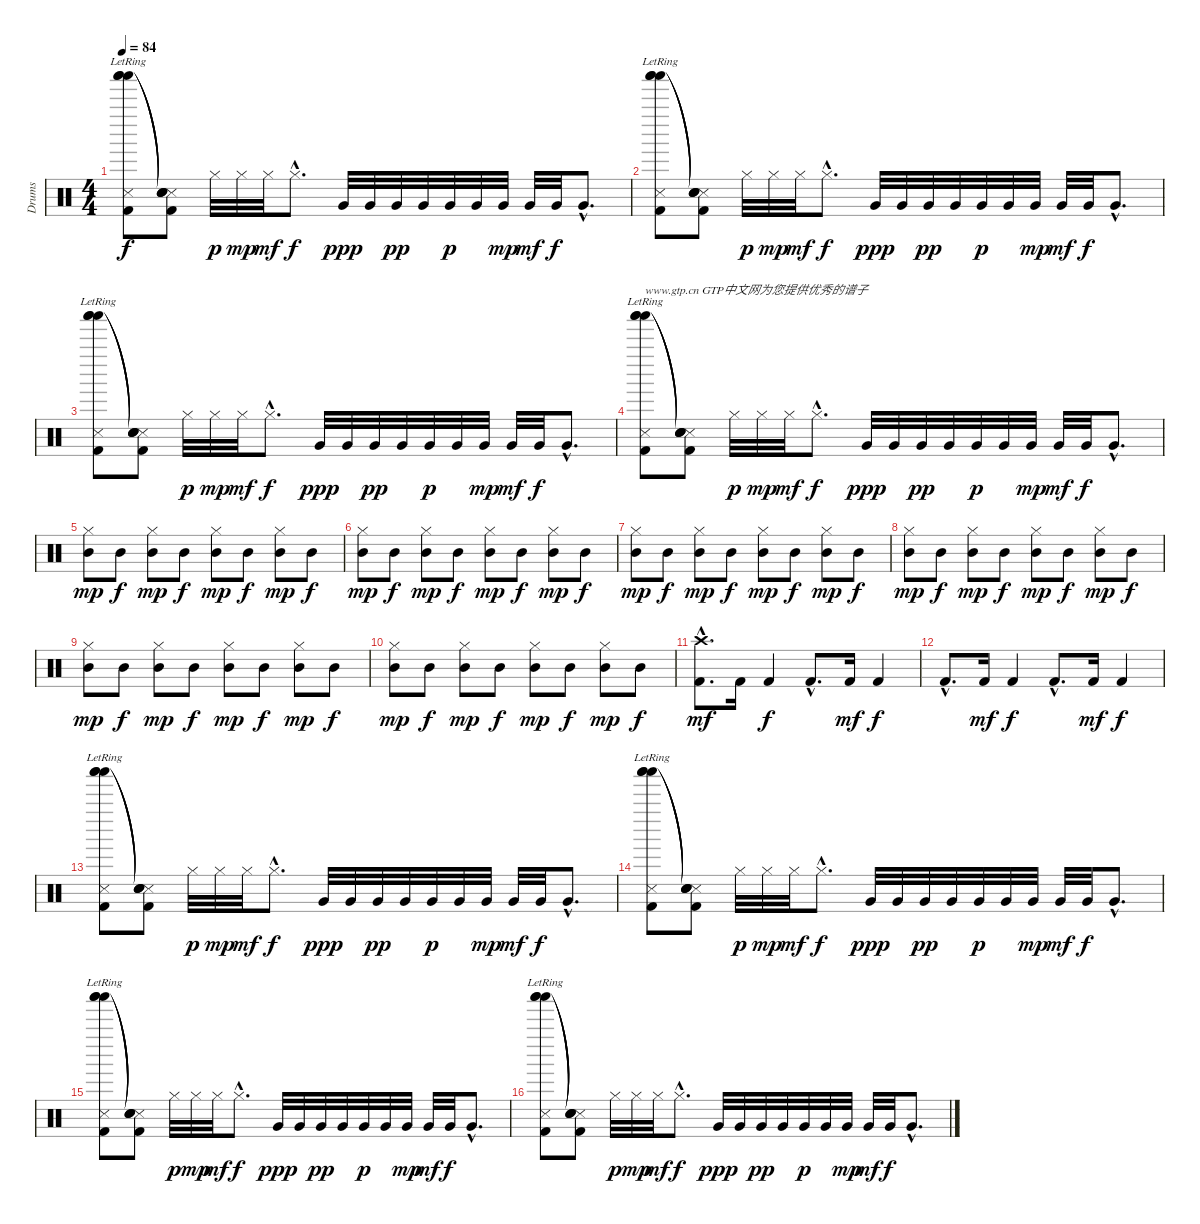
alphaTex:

\track ("Drums" "Drums") {instrument percussion}
\staff {score}
\articulation defaults
\ts (4 4)
\tempo 84
\clef neutral
\ks c
("Snare (side stick) 3" "Kick (hit) 2" "Shaker (hit)"{lr} "Shaker (hit)"{lr} "Shaker (hit)"{lr}).8{dy f} ("Snare (side stick) 3" "Kick (hit) 2" "Snare (hit)"{t} "Snare (hit)"{t} "Snare (hit)"{t}).8 "Hi-Hat (closed)".32{dy p} "Hi-Hat (closed)".32{dy mp} "Hi-Hat (closed)".32{dy mf} "Hi-Hat (closed)"{hac}.8{d dy f} "Very Low Tom (hit)".32{dy ppp} "Very Low Tom (hit)".32 "Very Low Tom (hit)".32{dy pp} "Very Low Tom (hit)".32 "Very Low Tom (hit)".32{dy p} "Very Low Tom (hit)".32 "Very Low Tom (hit)".32{dy mp} "Very Low Tom (hit)".32{dy mf} "Very Low Tom (hit)".32{dy f} "Very Low Tom (hit)"{hac}.8{d} |
("Snare (side stick) 3" "Kick (hit) 2" "Shaker (hit)"{lr} "Shaker (hit)"{lr} "Shaker (hit)"{lr}).8 ("Snare (side stick) 3" "Kick (hit) 2" "Snare (hit)"{t} "Snare (hit)"{t} "Snare (hit)"{t}).8 "Hi-Hat (closed)".32{dy p} "Hi-Hat (closed)".32{dy mp} "Hi-Hat (closed)".32{dy mf} "Hi-Hat (closed)"{hac}.8{d dy f} "Very Low Tom (hit)".32{dy ppp} "Very Low Tom (hit)".32 "Very Low Tom (hit)".32{dy pp} "Very Low Tom (hit)".32 "Very Low Tom (hit)".32{dy p} "Very Low Tom (hit)".32 "Very Low Tom (hit)".32{dy mp} "Very Low Tom (hit)".32{dy mf} "Very Low Tom (hit)".32{dy f} "Very Low Tom (hit)"{hac}.8{d} |
("Snare (side stick) 3" "Kick (hit) 2" "Shaker (hit)"{lr} "Shaker (hit)"{lr} "Shaker (hit)"{lr}).8 ("Snare (side stick) 3" "Kick (hit) 2" "Snare (hit)"{t} "Snare (hit)"{t} "Snare (hit)"{t}).8 "Hi-Hat (closed)".32{dy p} "Hi-Hat (closed)".32{dy mp} "Hi-Hat (closed)".32{dy mf} "Hi-Hat (closed)"{hac}.8{d dy f} "Very Low Tom (hit)".32{dy ppp} "Very Low Tom (hit)".32 "Very Low Tom (hit)".32{dy pp} "Very Low Tom (hit)".32 "Very Low Tom (hit)".32{dy p} "Very Low Tom (hit)".32 "Very Low Tom (hit)".32{dy mp} "Very Low Tom (hit)".32{dy mf} "Very Low Tom (hit)".32{dy f} "Very Low Tom (hit)"{hac}.8{d} |
("Snare (side stick) 3" "Kick (hit) 2" "Shaker (hit)"{lr} "Shaker (hit)"{lr} "Shaker (hit)"{lr}).8{txt "www.gtp.cn GTP中文网为您提供优秀的谱子"} ("Snare (side stick) 3" "Kick (hit) 2" "Snare (hit)"{t} "Snare (hit)"{t} "Snare (hit)"{t}).8 "Hi-Hat (closed)".32{dy p} "Hi-Hat (closed)".32{dy mp} "Hi-Hat (closed)".32{dy mf} "Hi-Hat (closed)"{hac}.8{d dy f} "Very Low Tom (hit)".32{dy ppp} "Very Low Tom (hit)".32 "Very Low Tom (hit)".32{dy pp} "Very Low Tom (hit)".32 "Very Low Tom (hit)".32{dy p} "Very Low Tom (hit)".32 "Very Low Tom (hit)".32{dy mp} "Very Low Tom (hit)".32{dy mf} "Very Low Tom (hit)".32{dy f} "Very Low Tom (hit)"{hac}.8{d} |
("Mid Tom (hit)" "Hi-Hat (closed)").8{dy mp} "Mid Tom (hit)".8{dy f} ("Mid Tom (hit)" "Hi-Hat (closed)").8{dy mp} "Mid Tom (hit)".8{dy f} ("Mid Tom (hit)" "Hi-Hat (closed)").8{dy mp} "Mid Tom (hit)".8{dy f} ("Mid Tom (hit)" "Hi-Hat (closed)").8{dy mp} "Mid Tom (hit)".8{dy f} |
("Mid Tom (hit)" "Hi-Hat (closed)").8{dy mp} "Mid Tom (hit)".8{dy f} ("Mid Tom (hit)" "Hi-Hat (closed)").8{dy mp} "Mid Tom (hit)".8{dy f} ("Mid Tom (hit)" "Hi-Hat (closed)").8{dy mp} "Mid Tom (hit)".8{dy f} ("Mid Tom (hit)" "Hi-Hat (closed)").8{dy mp} "Mid Tom (hit)".8{dy f} |
("Mid Tom (hit)" "Hi-Hat (closed)").8{dy mp} "Mid Tom (hit)".8{dy f} ("Mid Tom (hit)" "Hi-Hat (closed)").8{dy mp} "Mid Tom (hit)".8{dy f} ("Mid Tom (hit)" "Hi-Hat (closed)").8{dy mp} "Mid Tom (hit)".8{dy f} ("Mid Tom (hit)" "Hi-Hat (closed)").8{dy mp} "Mid Tom (hit)".8{dy f} |
("Mid Tom (hit)" "Hi-Hat (closed)").8{dy mp} "Mid Tom (hit)".8{dy f} ("Mid Tom (hit)" "Hi-Hat (closed)").8{dy mp} "Mid Tom (hit)".8{dy f} ("Mid Tom (hit)" "Hi-Hat (closed)").8{dy mp} "Mid Tom (hit)".8{dy f} ("Mid Tom (hit)" "Hi-Hat (closed)").8{dy mp} "Mid Tom (hit)".8{dy f} |
("Mid Tom (hit)" "Hi-Hat (closed)").8{dy mp} "Mid Tom (hit)".8{dy f} ("Mid Tom (hit)" "Hi-Hat (closed)").8{dy mp} "Mid Tom (hit)".8{dy f} ("Mid Tom (hit)" "Hi-Hat (closed)").8{dy mp} "Mid Tom (hit)".8{dy f} ("Mid Tom (hit)" "Hi-Hat (closed)").8{dy mp} "Mid Tom (hit)".8{dy f} |
("Mid Tom (hit)" "Hi-Hat (closed)").8{dy mp} "Mid Tom (hit)".8{dy f} ("Mid Tom (hit)" "Hi-Hat (closed)").8{dy mp} "Mid Tom (hit)".8{dy f} ("Mid Tom (hit)" "Hi-Hat (closed)").8{dy mp} "Mid Tom (hit)".8{dy f} ("Mid Tom (hit)" "Hi-Hat (closed)").8{dy mp} "Mid Tom (hit)".8{dy f} |
("Kick (hit) 2"{hac} "Crash high (hit)"{hac}).8{d dy mf} "Kick (hit) 2".16 "Kick (hit) 2".4{dy f} "Kick (hit) 2"{hac}.8{d} "Kick (hit) 2".16{dy mf} "Kick (hit) 2".4{dy f} |
"Kick (hit) 2"{hac}.8{d} "Kick (hit) 2".16{dy mf} "Kick (hit) 2".4{dy f} "Kick (hit) 2"{hac}.8{d} "Kick (hit) 2".16{dy mf} "Kick (hit) 2".4{dy f} |
("Snare (side stick) 3" "Kick (hit) 2" "Shaker (hit)"{lr} "Shaker (hit)"{lr} "Shaker (hit)"{lr}).8 ("Snare (side stick) 3" "Kick (hit) 2" "Snare (hit)"{t} "Snare (hit)"{t} "Snare (hit)"{t}).8 "Hi-Hat (closed)".32{dy p} "Hi-Hat (closed)".32{dy mp} "Hi-Hat (closed)".32{dy mf} "Hi-Hat (closed)"{hac}.8{d dy f} "Very Low Tom (hit)".32{dy ppp} "Very Low Tom (hit)".32 "Very Low Tom (hit)".32{dy pp} "Very Low Tom (hit)".32 "Very Low Tom (hit)".32{dy p} "Very Low Tom (hit)".32 "Very Low Tom (hit)".32{dy mp} "Very Low Tom (hit)".32{dy mf} "Very Low Tom (hit)".32{dy f} "Very Low Tom (hit)"{hac}.8{d} |
("Snare (side stick) 3" "Kick (hit) 2" "Shaker (hit)"{lr} "Shaker (hit)"{lr} "Shaker (hit)"{lr}).8 ("Snare (side stick) 3" "Kick (hit) 2" "Snare (hit)"{t} "Snare (hit)"{t} "Snare (hit)"{t}).8 "Hi-Hat (closed)".32{dy p} "Hi-Hat (closed)".32{dy mp} "Hi-Hat (closed)".32{dy mf} "Hi-Hat (closed)"{hac}.8{d dy f} "Very Low Tom (hit)".32{dy ppp} "Very Low Tom (hit)".32 "Very Low Tom (hit)".32{dy pp} "Very Low Tom (hit)".32 "Very Low Tom (hit)".32{dy p} "Very Low Tom (hit)".32 "Very Low Tom (hit)".32{dy mp} "Very Low Tom (hit)".32{dy mf} "Very Low Tom (hit)".32{dy f} "Very Low Tom (hit)"{hac}.8{d} |
("Snare (side stick) 3" "Kick (hit) 2" "Shaker (hit)"{lr} "Shaker (hit)"{lr} "Shaker (hit)"{lr}).8 ("Snare (side stick) 3" "Kick (hit) 2" "Snare (hit)"{t} "Snare (hit)"{t} "Snare (hit)"{t}).8 "Hi-Hat (closed)".32{dy p} "Hi-Hat (closed)".32{dy mp} "Hi-Hat (closed)".32{dy mf} "Hi-Hat (closed)"{hac}.8{d dy f} "Very Low Tom (hit)".32{dy ppp} "Very Low Tom (hit)".32 "Very Low Tom (hit)".32{dy pp} "Very Low Tom (hit)".32 "Very Low Tom (hit)".32{dy p} "Very Low Tom (hit)".32 "Very Low Tom (hit)".32{dy mp} "Very Low Tom (hit)".32{dy mf} "Very Low Tom (hit)".32{dy f} "Very Low Tom (hit)"{hac}.8{d} |
("Snare (side stick) 3" "Kick (hit) 2" "Shaker (hit)"{lr} "Shaker (hit)"{lr} "Shaker (hit)"{lr}).8 ("Snare (side stick) 3" "Kick (hit) 2" "Snare (hit)"{t} "Snare (hit)"{t} "Snare (hit)"{t}).8 "Hi-Hat (closed)".32{dy p} "Hi-Hat (closed)".32{dy mp} "Hi-Hat (closed)".32{dy mf} "Hi-Hat (closed)"{hac}.8{d dy f} "Very Low Tom (hit)".32{dy ppp} "Very Low Tom (hit)".32 "Very Low Tom (hit)".32{dy pp} "Very Low Tom (hit)".32 "Very Low Tom (hit)".32{dy p} "Very Low Tom (hit)".32 "Very Low Tom (hit)".32{dy mp} "Very Low Tom (hit)".32{dy mf} "Very Low Tom (hit)".32{dy f} "Very Low Tom (hit)"{hac}.8{d}
